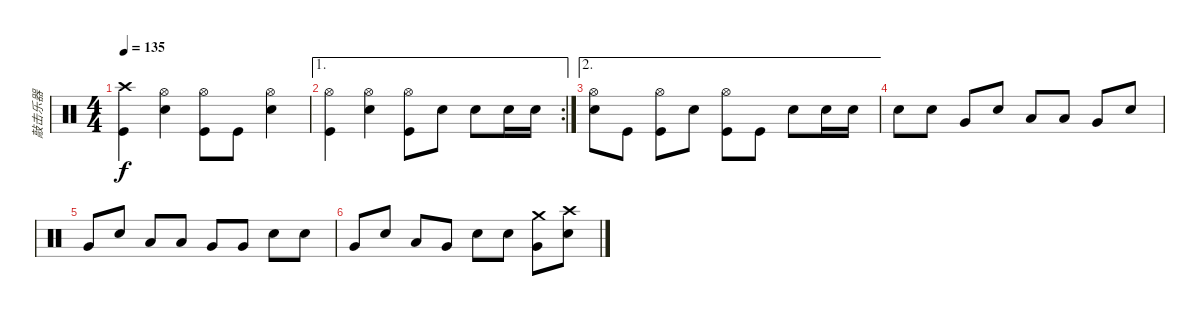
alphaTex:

\track ("敲击乐器" "敲击乐器") {instrument percussion}
\staff {score}
\articulation defaults
\ts (4 4)
\tempo 135
\clef neutral
\ks c
("Crash high (hit)" "Kick (hit)").4{dy f} ("Hi-Hat (open)" "Electric Snare (hit)").4 ("Hi-Hat (open)" "Kick (hit)").8 "Kick (hit)".8 ("Hi-Hat (open)" "Electric Snare (hit)").4 |
\ae 1
\rc 2
("Hi-Hat (open)" "Kick (hit)").4 ("Hi-Hat (open)" "Electric Snare (hit)").4 ("Hi-Hat (open)" "Kick (hit)").8 "Electric Snare (hit)".8 "Electric Snare (hit)".8 "Electric Snare (hit)".16 "Electric Snare (hit)".16 |
\ae 2
("Hi-Hat (open)" "Electric Snare (hit)").8 "Kick (hit)".8 ("Hi-Hat (open)" "Kick (hit)").8 "Electric Snare (hit)".8 ("Hi-Hat (open)" "Kick (hit)").8 "Kick (hit)".8 "Electric Snare (hit)".8 "Electric Snare (hit)".16 "Electric Snare (hit)".16 |
"Electric Snare (hit)".8 "Electric Snare (hit)".8 "Very Low Tom (hit)".8 "Electric Snare (hit)".8 "Low Tom (hit)".8 "Low Tom (hit)".8 "Very Low Tom (hit)".8 "Electric Snare (hit)".8 |
"Very Low Tom (hit)".8 "Electric Snare (hit)".8 "Low Tom (hit)".8 "Low Tom (hit)".8 "Very Low Tom (hit)".8 "Very Low Tom (hit)".8 "Electric Snare (hit)".8 "Electric Snare (hit)".8 |
"Very Low Tom (hit)".8 "Electric Snare (hit)".8 "Low Tom (hit)".8 "Very Low Tom (hit)".8 "Electric Snare (hit)".8 "Electric Snare (hit)".8 ("Crash medium (hit)" "Very Low Tom (hit)").8 ("Crash high (hit)" "Electric Snare (hit)").8
